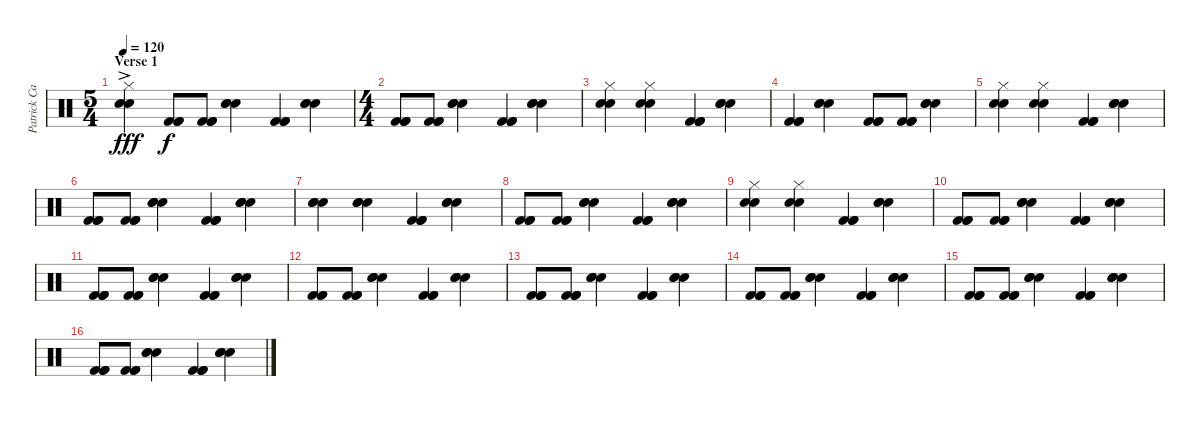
\track ("Patrick Carney (Drums)" "Patrick Ca") {instrument percussion}
\staff {score}
\articulation defaults
\ts (5 4)
\section ("" "Verse 1")
\tempo 120
\clef neutral
\ks c
("Electric Snare (hit)" "Snare (hit) 2"{ac} "Hi-Hat (closed)").4{dy fff} ("Kick (hit) 2" "Kick (hit) 2" "Kick (hit) 2").8{dy f} ("Kick (hit) 2" "Kick (hit) 2" "Kick (hit) 2").8 ("Electric Snare (hit)" "Snare (hit) 2" "Snare (hit) 2").4 ("Kick (hit) 2" "Kick (hit) 2" "Kick (hit) 2").4 ("Electric Snare (hit)" "Snare (hit) 2" "Snare (hit) 2").4 |
\ts (4 4)
("Kick (hit) 2" "Kick (hit) 2" "Kick (hit) 2").8 ("Kick (hit) 2" "Kick (hit) 2" "Kick (hit) 2").8 ("Electric Snare (hit)" "Snare (hit) 2" "Snare (hit) 2").4 ("Kick (hit) 2" "Kick (hit) 2" "Kick (hit) 2").4 ("Electric Snare (hit)" "Snare (hit) 2" "Snare (hit) 2").4 |
("Electric Snare (hit)" "Snare (hit) 2" "Hi-Hat (closed)").4 ("Electric Snare (hit)" "Snare (hit) 2" "Hi-Hat (closed)").4 ("Kick (hit) 2" "Kick (hit) 2" "Kick (hit) 2").4 ("Electric Snare (hit)" "Snare (hit) 2" "Snare (hit) 2").4 |
("Kick (hit) 2" "Kick (hit) 2" "Kick (hit) 2").4 ("Electric Snare (hit)" "Snare (hit) 2" "Snare (hit) 2").4 ("Kick (hit) 2" "Kick (hit) 2" "Kick (hit) 2").8 ("Kick (hit) 2" "Kick (hit) 2" "Kick (hit) 2").8 ("Electric Snare (hit)" "Snare (hit) 2" "Snare (hit) 2").4 |
("Electric Snare (hit)" "Snare (hit) 2" "Hi-Hat (closed)").4 ("Electric Snare (hit)" "Snare (hit) 2" "Hi-Hat (closed)").4 ("Kick (hit) 2" "Kick (hit) 2" "Kick (hit) 2").4 ("Electric Snare (hit)" "Snare (hit) 2" "Snare (hit) 2").4 |
("Kick (hit) 2" "Kick (hit) 2" "Kick (hit) 2").8 ("Kick (hit) 2" "Kick (hit) 2" "Kick (hit) 2").8 ("Electric Snare (hit)" "Snare (hit) 2" "Snare (hit) 2").4 ("Kick (hit) 2" "Kick (hit) 2" "Kick (hit) 2").4 ("Electric Snare (hit)" "Snare (hit) 2" "Snare (hit) 2").4 |
("Electric Snare (hit)" "Snare (hit) 2" "Snare (hit) 2").4 ("Electric Snare (hit)" "Snare (hit) 2" "Snare (hit) 2").4 ("Kick (hit) 2" "Kick (hit) 2" "Kick (hit) 2").4 ("Electric Snare (hit)" "Snare (hit) 2" "Snare (hit) 2").4 |
("Kick (hit) 2" "Kick (hit) 2" "Kick (hit) 2").8 ("Kick (hit) 2" "Kick (hit) 2" "Kick (hit) 2").8 ("Electric Snare (hit)" "Snare (hit) 2" "Snare (hit) 2").4 ("Kick (hit) 2" "Kick (hit) 2" "Kick (hit) 2").4 ("Electric Snare (hit)" "Snare (hit) 2" "Snare (hit) 2").4 |
("Electric Snare (hit)" "Snare (hit) 2" "Hi-Hat (closed)").4 ("Electric Snare (hit)" "Snare (hit) 2" "Hi-Hat (closed)").4 ("Kick (hit) 2" "Kick (hit) 2" "Kick (hit) 2").4 ("Electric Snare (hit)" "Snare (hit) 2" "Snare (hit) 2").4 |
("Kick (hit) 2" "Kick (hit) 2" "Kick (hit) 2").8 ("Kick (hit) 2" "Kick (hit) 2" "Kick (hit) 2").8 ("Electric Snare (hit)" "Snare (hit) 2" "Snare (hit) 2").4 ("Kick (hit) 2" "Kick (hit) 2" "Kick (hit) 2").4 ("Electric Snare (hit)" "Snare (hit) 2" "Snare (hit) 2").4 |
("Kick (hit) 2" "Kick (hit) 2" "Kick (hit) 2").8 ("Kick (hit) 2" "Kick (hit) 2" "Kick (hit) 2").8 ("Electric Snare (hit)" "Snare (hit) 2" "Snare (hit) 2").4 ("Kick (hit) 2" "Kick (hit) 2" "Kick (hit) 2").4 ("Electric Snare (hit)" "Snare (hit) 2" "Snare (hit) 2").4 |
("Kick (hit) 2" "Kick (hit) 2" "Kick (hit) 2").8 ("Kick (hit) 2" "Kick (hit) 2" "Kick (hit) 2").8 ("Electric Snare (hit)" "Snare (hit) 2" "Snare (hit) 2").4 ("Kick (hit) 2" "Kick (hit) 2" "Kick (hit) 2").4 ("Electric Snare (hit)" "Snare (hit) 2" "Snare (hit) 2").4 |
("Kick (hit) 2" "Kick (hit) 2" "Kick (hit) 2").8 ("Kick (hit) 2" "Kick (hit) 2" "Kick (hit) 2").8 ("Electric Snare (hit)" "Snare (hit) 2" "Snare (hit) 2").4 ("Kick (hit) 2" "Kick (hit) 2" "Kick (hit) 2").4 ("Electric Snare (hit)" "Snare (hit) 2" "Snare (hit) 2").4 |
("Kick (hit) 2" "Kick (hit) 2" "Kick (hit) 2").8 ("Kick (hit) 2" "Kick (hit) 2" "Kick (hit) 2").8 ("Electric Snare (hit)" "Snare (hit) 2" "Snare (hit) 2").4 ("Kick (hit) 2" "Kick (hit) 2" "Kick (hit) 2").4 ("Electric Snare (hit)" "Snare (hit) 2" "Snare (hit) 2").4 |
("Kick (hit) 2" "Kick (hit) 2" "Kick (hit) 2").8 ("Kick (hit) 2" "Kick (hit) 2" "Kick (hit) 2").8 ("Electric Snare (hit)" "Snare (hit) 2" "Snare (hit) 2").4 ("Kick (hit) 2" "Kick (hit) 2" "Kick (hit) 2").4 ("Electric Snare (hit)" "Snare (hit) 2" "Snare (hit) 2").4 |
("Kick (hit) 2" "Kick (hit) 2" "Kick (hit) 2").8 ("Kick (hit) 2" "Kick (hit) 2" "Kick (hit) 2").8 ("Electric Snare (hit)" "Snare (hit) 2" "Snare (hit) 2").4 ("Kick (hit) 2" "Kick (hit) 2" "Kick (hit) 2").4 ("Electric Snare (hit)" "Snare (hit) 2" "Snare (hit) 2").4
